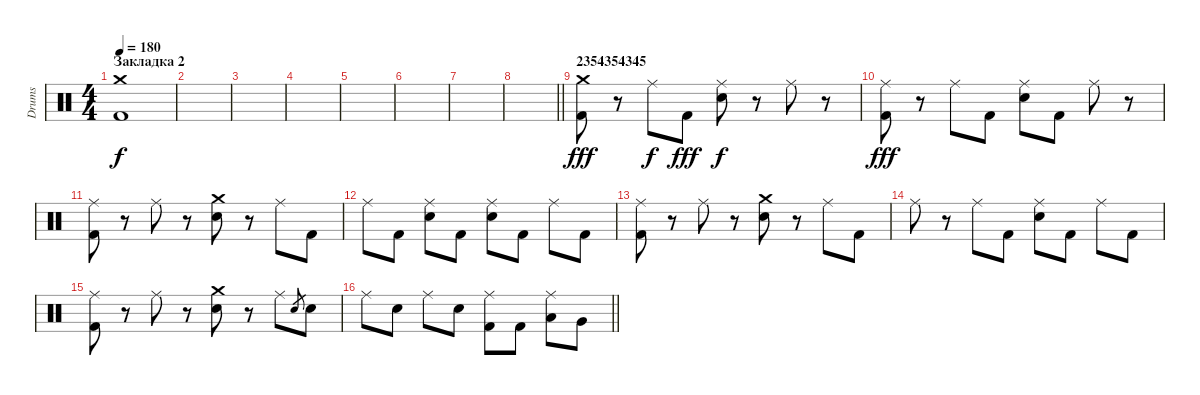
\track ("Drums" "Drums") {instrument percussion}
\staff {score}
\articulation defaults
\ts (4 4)
\section ("" "Закладка 2")
\tempo 180
\clef neutral
\ks c
("Crash medium (hit)" "Kick (hit) 2").1{dy f} |
|
|
|
|
|
|
\barLineRight lightlight
|
\section ("" "2354354345")
("Crash medium (hit)" "Kick (hit) 2").8{dy fff} r.8 "Ride (middle)".8{dy f} "Kick (hit) 2".8{dy fff} ("Ride (middle)" "Electric Snare (hit)").8{dy f} r.8 "Ride (middle)".8 r.8 |
("Ride (middle)" "Kick (hit) 2").8{dy fff} r.8 "Ride (middle)".8 "Kick (hit) 2".8 ("Ride (middle)" "Electric Snare (hit)").8 "Kick (hit) 2".8 "Ride (middle)".8 r.8 |
("Ride (middle)" "Kick (hit) 2").8 r.8 "Ride (middle)".8 r.8 ("Crash medium (hit)" "Electric Snare (hit)").8 r.8 "Ride (middle)".8 "Kick (hit) 2".8 |
"Ride (middle)".8 "Kick (hit) 2".8 ("Ride (middle)" "Electric Snare (hit)").8 "Kick (hit) 2".8 ("Ride (middle)" "Electric Snare (hit)").8 "Kick (hit) 2".8 "Ride (middle)".8 "Kick (hit) 2".8 |
("Ride (middle)" "Kick (hit) 2").8 r.8 "Ride (middle)".8 r.8 ("Crash medium (hit)" "Electric Snare (hit)").8 r.8 "Ride (middle)".8 "Kick (hit) 2".8 |
"Ride (middle)".8 r.8 "Ride (middle)".8 "Kick (hit) 2".8 ("Ride (middle)" "Electric Snare (hit)").8 "Kick (hit) 2".8 "Ride (middle)".8 "Kick (hit) 2".8 |
("Ride (middle)" "Kick (hit) 2").8 r.8 "Ride (middle)".8 r.8 ("Crash medium (hit)" "Electric Snare (hit)").8 r.8 "Ride (middle)".8 "Electric Snare (hit)".8{gr} "Electric Snare (hit)".8 |
\barLineRight lightlight "Ride (middle)".8 "Electric Snare (hit)".8 "Ride (middle)".8 "Electric Snare (hit)".8
("Ride (middle)" "Kick (hit) 2").8 "Kick (hit) 2".8 ("Ride (middle)" "Low Tom (hit)").8 "Very Low Tom (hit)".8
